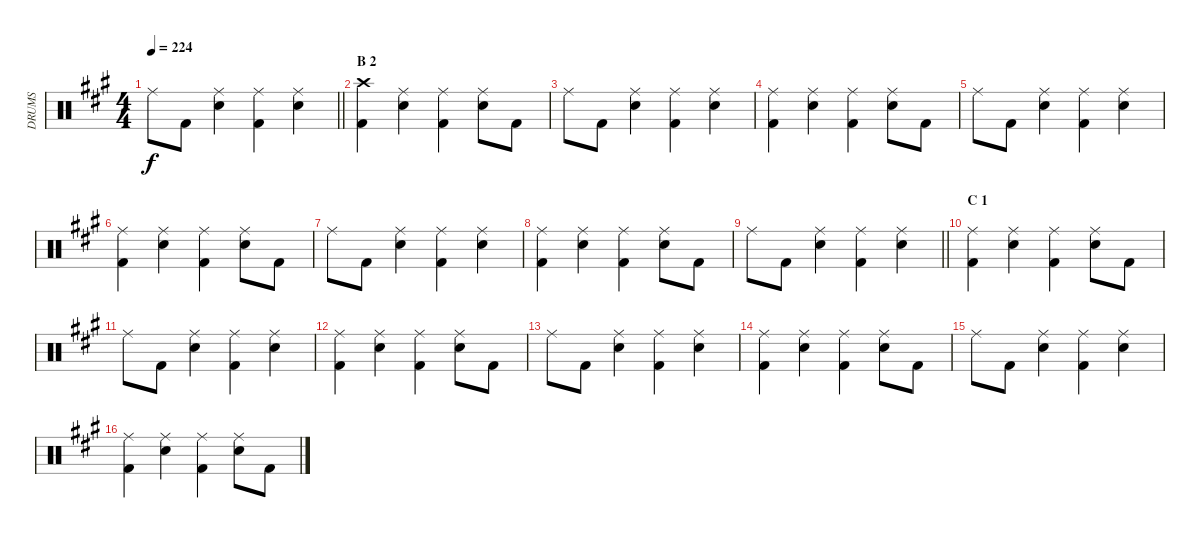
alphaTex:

\track ("DRUMS" "DRUMS") {instrument percussion}
\staff {score}
\articulation defaults
\ts (4 4)
\tempo 224
\clef neutral
\barLineRight lightlight
\ks a "Ride (middle)".8{dy f} "Kick (hit) 2".8
("Ride (middle)" "Snare (hit) 2").4 ("Ride (middle)" "Kick (hit) 2").4 ("Ride (middle)" "Snare (hit) 2").4 |
\section ("" "B 2")
("Crash high (hit)" "Kick (hit) 2").4 ("Ride (middle)" "Snare (hit) 2").4 ("Ride (middle)" "Kick (hit) 2").4 ("Ride (middle)" "Snare (hit) 2").8 "Kick (hit) 2".8 |
"Ride (middle)".8 "Kick (hit) 2".8 ("Ride (middle)" "Snare (hit) 2").4 ("Ride (middle)" "Kick (hit) 2").4 ("Ride (middle)" "Snare (hit) 2").4 |
("Ride (middle)" "Kick (hit) 2").4 ("Ride (middle)" "Snare (hit) 2").4 ("Ride (middle)" "Kick (hit) 2").4 ("Ride (middle)" "Snare (hit) 2").8 "Kick (hit) 2".8 |
"Ride (middle)".8 "Kick (hit) 2".8 ("Ride (middle)" "Snare (hit) 2").4 ("Ride (middle)" "Kick (hit) 2").4 ("Ride (middle)" "Snare (hit) 2").4 |
("Ride (middle)" "Kick (hit) 2").4 ("Ride (middle)" "Snare (hit) 2").4 ("Ride (middle)" "Kick (hit) 2").4 ("Ride (middle)" "Snare (hit) 2").8 "Kick (hit) 2".8 |
"Ride (middle)".8 "Kick (hit) 2".8 ("Ride (middle)" "Snare (hit) 2").4 ("Ride (middle)" "Kick (hit) 2").4 ("Ride (middle)" "Snare (hit) 2").4 |
("Ride (middle)" "Kick (hit) 2").4 ("Ride (middle)" "Snare (hit) 2").4 ("Ride (middle)" "Kick (hit) 2").4 ("Ride (middle)" "Snare (hit) 2").8 "Kick (hit) 2".8 |
\barLineRight lightlight "Ride (middle)".8 "Kick (hit) 2".8
("Ride (middle)" "Snare (hit) 2").4 ("Ride (middle)" "Kick (hit) 2").4 ("Ride (middle)" "Snare (hit) 2").4 |
\section ("" "C 1")
("Ride (middle)" "Kick (hit) 2").4 ("Ride (middle)" "Snare (hit) 2").4 ("Ride (middle)" "Kick (hit) 2").4 ("Ride (middle)" "Snare (hit) 2").8 "Kick (hit) 2".8 |
"Ride (middle)".8 "Kick (hit) 2".8 ("Ride (middle)" "Snare (hit) 2").4 ("Ride (middle)" "Kick (hit) 2").4 ("Ride (middle)" "Snare (hit) 2").4 |
("Ride (middle)" "Kick (hit) 2").4 ("Ride (middle)" "Snare (hit) 2").4 ("Ride (middle)" "Kick (hit) 2").4 ("Ride (middle)" "Snare (hit) 2").8 "Kick (hit) 2".8 |
"Ride (middle)".8 "Kick (hit) 2".8 ("Ride (middle)" "Snare (hit) 2").4 ("Ride (middle)" "Kick (hit) 2").4 ("Ride (middle)" "Snare (hit) 2").4 |
("Ride (middle)" "Kick (hit) 2").4 ("Ride (middle)" "Snare (hit) 2").4 ("Ride (middle)" "Kick (hit) 2").4 ("Ride (middle)" "Snare (hit) 2").8 "Kick (hit) 2".8 |
"Ride (middle)".8 "Kick (hit) 2".8 ("Ride (middle)" "Snare (hit) 2").4 ("Ride (middle)" "Kick (hit) 2").4 ("Ride (middle)" "Snare (hit) 2").4 |
("Ride (middle)" "Kick (hit) 2").4 ("Ride (middle)" "Snare (hit) 2").4 ("Ride (middle)" "Kick (hit) 2").4 ("Ride (middle)" "Snare (hit) 2").8 "Kick (hit) 2".8
